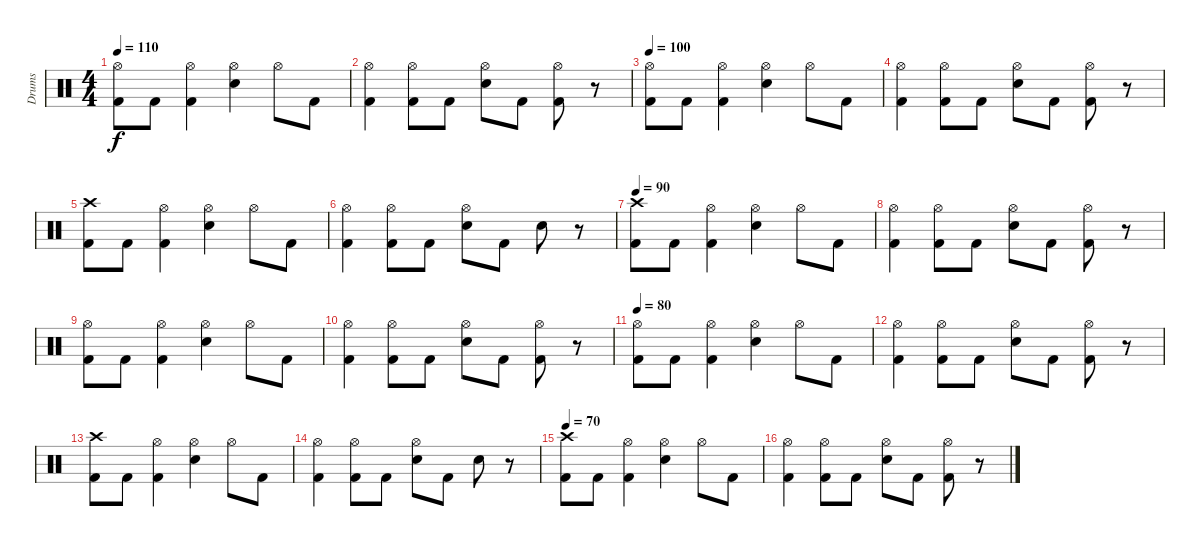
\track ("Drums" "Drums") {instrument percussion}
\staff {score}
\articulation defaults
\ts (4 4)
\tempo 110
\clef neutral
\ks c
("Hi-Hat (open)" "Kick (hit) 2").8{dy f} "Kick (hit) 2".8 ("Hi-Hat (open)" "Kick (hit) 2").4 ("Hi-Hat (open)" "Snare (hit) 2").4 "Hi-Hat (open)".8 "Kick (hit) 2".8 |
("Hi-Hat (open)" "Kick (hit) 2").4 ("Hi-Hat (open)" "Kick (hit) 2").8 "Kick (hit) 2".8 ("Hi-Hat (open)" "Snare (hit) 2").8 "Kick (hit) 2".8 ("Hi-Hat (open)" "Kick (hit) 2").8 r.8 |
\tempo 100
("Hi-Hat (open)" "Kick (hit) 2").8 "Kick (hit) 2".8 ("Hi-Hat (open)" "Kick (hit) 2").4 ("Hi-Hat (open)" "Snare (hit) 2").4 "Hi-Hat (open)".8 "Kick (hit) 2".8 |
("Hi-Hat (open)" "Kick (hit) 2").4 ("Hi-Hat (open)" "Kick (hit) 2").8 "Kick (hit) 2".8 ("Hi-Hat (open)" "Snare (hit) 2").8 "Kick (hit) 2".8 ("Hi-Hat (open)" "Kick (hit) 2").8 r.8 |
("Crash high (hit)" "Kick (hit) 2").8 "Kick (hit) 2".8 ("Hi-Hat (open)" "Kick (hit) 2").4 ("Hi-Hat (open)" "Snare (hit) 2").4 "Hi-Hat (open)".8 "Kick (hit) 2".8 |
("Hi-Hat (open)" "Kick (hit) 2").4 ("Hi-Hat (open)" "Kick (hit) 2").8 "Kick (hit) 2".8 ("Hi-Hat (open)" "Snare (hit) 2").8 "Kick (hit) 2".8 "Snare (hit) 2".8 r.8 |
\tempo 90
("Crash high (hit)" "Kick (hit) 2").8 "Kick (hit) 2".8 ("Hi-Hat (open)" "Kick (hit) 2").4 ("Hi-Hat (open)" "Snare (hit) 2").4 "Hi-Hat (open)".8 "Kick (hit) 2".8 |
("Hi-Hat (open)" "Kick (hit) 2").4 ("Hi-Hat (open)" "Kick (hit) 2").8 "Kick (hit) 2".8 ("Hi-Hat (open)" "Snare (hit) 2").8 "Kick (hit) 2".8 ("Hi-Hat (open)" "Kick (hit) 2").8 r.8 |
("Hi-Hat (open)" "Kick (hit) 2").8 "Kick (hit) 2".8 ("Hi-Hat (open)" "Kick (hit) 2").4 ("Hi-Hat (open)" "Snare (hit) 2").4 "Hi-Hat (open)".8 "Kick (hit) 2".8 |
("Hi-Hat (open)" "Kick (hit) 2").4 ("Hi-Hat (open)" "Kick (hit) 2").8 "Kick (hit) 2".8 ("Hi-Hat (open)" "Snare (hit) 2").8 "Kick (hit) 2".8 ("Hi-Hat (open)" "Kick (hit) 2").8 r.8 |
\tempo 80
("Hi-Hat (open)" "Kick (hit) 2").8 "Kick (hit) 2".8 ("Hi-Hat (open)" "Kick (hit) 2").4 ("Hi-Hat (open)" "Snare (hit) 2").4 "Hi-Hat (open)".8 "Kick (hit) 2".8 |
("Hi-Hat (open)" "Kick (hit) 2").4 ("Hi-Hat (open)" "Kick (hit) 2").8 "Kick (hit) 2".8 ("Hi-Hat (open)" "Snare (hit) 2").8 "Kick (hit) 2".8 ("Hi-Hat (open)" "Kick (hit) 2").8 r.8 |
("Crash high (hit)" "Kick (hit) 2").8 "Kick (hit) 2".8 ("Hi-Hat (open)" "Kick (hit) 2").4 ("Hi-Hat (open)" "Snare (hit) 2").4 "Hi-Hat (open)".8 "Kick (hit) 2".8 |
("Hi-Hat (open)" "Kick (hit) 2").4 ("Hi-Hat (open)" "Kick (hit) 2").8 "Kick (hit) 2".8 ("Hi-Hat (open)" "Snare (hit) 2").8 "Kick (hit) 2".8 "Snare (hit) 2".8 r.8 |
\tempo 70
("Crash high (hit)" "Kick (hit) 2").8 "Kick (hit) 2".8 ("Hi-Hat (open)" "Kick (hit) 2").4 ("Hi-Hat (open)" "Snare (hit) 2").4 "Hi-Hat (open)".8 "Kick (hit) 2".8 |
("Hi-Hat (open)" "Kick (hit) 2").4 ("Hi-Hat (open)" "Kick (hit) 2").8 "Kick (hit) 2".8 ("Hi-Hat (open)" "Snare (hit) 2").8 "Kick (hit) 2".8 ("Hi-Hat (open)" "Kick (hit) 2").8 r.8
